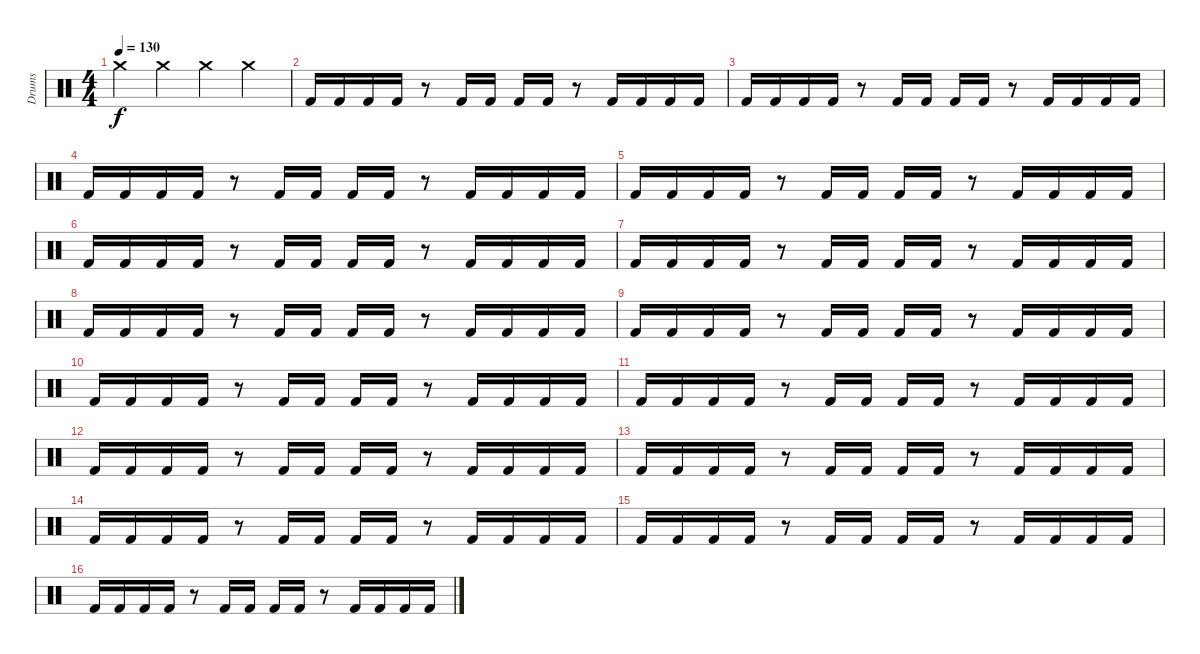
\track ("Drums" "Drums") {instrument percussion}
\staff {score}
\articulation defaults
\ts (4 4)
\tempo 130
\clef neutral
\ks c "Crash medium (hit)".4{dy f} "Crash medium (hit)".4 "Crash medium (hit)".4 "Crash medium (hit)".4
|
"Kick (hit) 2".16 "Kick (hit) 2".16 "Kick (hit) 2".16 "Kick (hit) 2".16 r.8 "Kick (hit) 2".16 "Kick (hit) 2".16 "Kick (hit) 2".16 "Kick (hit) 2".16 r.8 "Kick (hit) 2".16 "Kick (hit) 2".16 "Kick (hit) 2".16 "Kick (hit) 2".16 |
"Kick (hit) 2".16 "Kick (hit) 2".16 "Kick (hit) 2".16 "Kick (hit) 2".16 r.8 "Kick (hit) 2".16 "Kick (hit) 2".16 "Kick (hit) 2".16 "Kick (hit) 2".16 r.8 "Kick (hit) 2".16 "Kick (hit) 2".16 "Kick (hit) 2".16 "Kick (hit) 2".16 |
"Kick (hit) 2".16 "Kick (hit) 2".16 "Kick (hit) 2".16 "Kick (hit) 2".16 r.8 "Kick (hit) 2".16 "Kick (hit) 2".16 "Kick (hit) 2".16 "Kick (hit) 2".16 r.8 "Kick (hit) 2".16 "Kick (hit) 2".16 "Kick (hit) 2".16 "Kick (hit) 2".16 |
"Kick (hit) 2".16 "Kick (hit) 2".16 "Kick (hit) 2".16 "Kick (hit) 2".16 r.8 "Kick (hit) 2".16 "Kick (hit) 2".16 "Kick (hit) 2".16 "Kick (hit) 2".16 r.8 "Kick (hit) 2".16 "Kick (hit) 2".16 "Kick (hit) 2".16 "Kick (hit) 2".16 |
"Kick (hit) 2".16 "Kick (hit) 2".16 "Kick (hit) 2".16 "Kick (hit) 2".16 r.8 "Kick (hit) 2".16 "Kick (hit) 2".16 "Kick (hit) 2".16 "Kick (hit) 2".16 r.8 "Kick (hit) 2".16 "Kick (hit) 2".16 "Kick (hit) 2".16 "Kick (hit) 2".16 |
"Kick (hit) 2".16 "Kick (hit) 2".16 "Kick (hit) 2".16 "Kick (hit) 2".16 r.8 "Kick (hit) 2".16 "Kick (hit) 2".16 "Kick (hit) 2".16 "Kick (hit) 2".16 r.8 "Kick (hit) 2".16 "Kick (hit) 2".16 "Kick (hit) 2".16 "Kick (hit) 2".16 |
"Kick (hit) 2".16 "Kick (hit) 2".16 "Kick (hit) 2".16 "Kick (hit) 2".16 r.8 "Kick (hit) 2".16 "Kick (hit) 2".16 "Kick (hit) 2".16 "Kick (hit) 2".16 r.8 "Kick (hit) 2".16 "Kick (hit) 2".16 "Kick (hit) 2".16 "Kick (hit) 2".16 |
"Kick (hit) 2".16 "Kick (hit) 2".16 "Kick (hit) 2".16 "Kick (hit) 2".16 r.8 "Kick (hit) 2".16 "Kick (hit) 2".16 "Kick (hit) 2".16 "Kick (hit) 2".16 r.8 "Kick (hit) 2".16 "Kick (hit) 2".16 "Kick (hit) 2".16 "Kick (hit) 2".16 |
"Kick (hit) 2".16 "Kick (hit) 2".16 "Kick (hit) 2".16 "Kick (hit) 2".16 r.8 "Kick (hit) 2".16 "Kick (hit) 2".16 "Kick (hit) 2".16 "Kick (hit) 2".16 r.8 "Kick (hit) 2".16 "Kick (hit) 2".16 "Kick (hit) 2".16 "Kick (hit) 2".16 |
"Kick (hit) 2".16 "Kick (hit) 2".16 "Kick (hit) 2".16 "Kick (hit) 2".16 r.8 "Kick (hit) 2".16 "Kick (hit) 2".16 "Kick (hit) 2".16 "Kick (hit) 2".16 r.8 "Kick (hit) 2".16 "Kick (hit) 2".16 "Kick (hit) 2".16 "Kick (hit) 2".16 |
"Kick (hit) 2".16 "Kick (hit) 2".16 "Kick (hit) 2".16 "Kick (hit) 2".16 r.8 "Kick (hit) 2".16 "Kick (hit) 2".16 "Kick (hit) 2".16 "Kick (hit) 2".16 r.8 "Kick (hit) 2".16 "Kick (hit) 2".16 "Kick (hit) 2".16 "Kick (hit) 2".16 |
"Kick (hit) 2".16 "Kick (hit) 2".16 "Kick (hit) 2".16 "Kick (hit) 2".16 r.8 "Kick (hit) 2".16 "Kick (hit) 2".16 "Kick (hit) 2".16 "Kick (hit) 2".16 r.8 "Kick (hit) 2".16 "Kick (hit) 2".16 "Kick (hit) 2".16 "Kick (hit) 2".16 |
"Kick (hit) 2".16 "Kick (hit) 2".16 "Kick (hit) 2".16 "Kick (hit) 2".16 r.8 "Kick (hit) 2".16 "Kick (hit) 2".16 "Kick (hit) 2".16 "Kick (hit) 2".16 r.8 "Kick (hit) 2".16 "Kick (hit) 2".16 "Kick (hit) 2".16 "Kick (hit) 2".16 |
"Kick (hit) 2".16 "Kick (hit) 2".16 "Kick (hit) 2".16 "Kick (hit) 2".16 r.8 "Kick (hit) 2".16 "Kick (hit) 2".16 "Kick (hit) 2".16 "Kick (hit) 2".16 r.8 "Kick (hit) 2".16 "Kick (hit) 2".16 "Kick (hit) 2".16 "Kick (hit) 2".16 |
"Kick (hit) 2".16 "Kick (hit) 2".16 "Kick (hit) 2".16 "Kick (hit) 2".16 r.8 "Kick (hit) 2".16 "Kick (hit) 2".16 "Kick (hit) 2".16 "Kick (hit) 2".16 r.8 "Kick (hit) 2".16 "Kick (hit) 2".16 "Kick (hit) 2".16 "Kick (hit) 2".16
